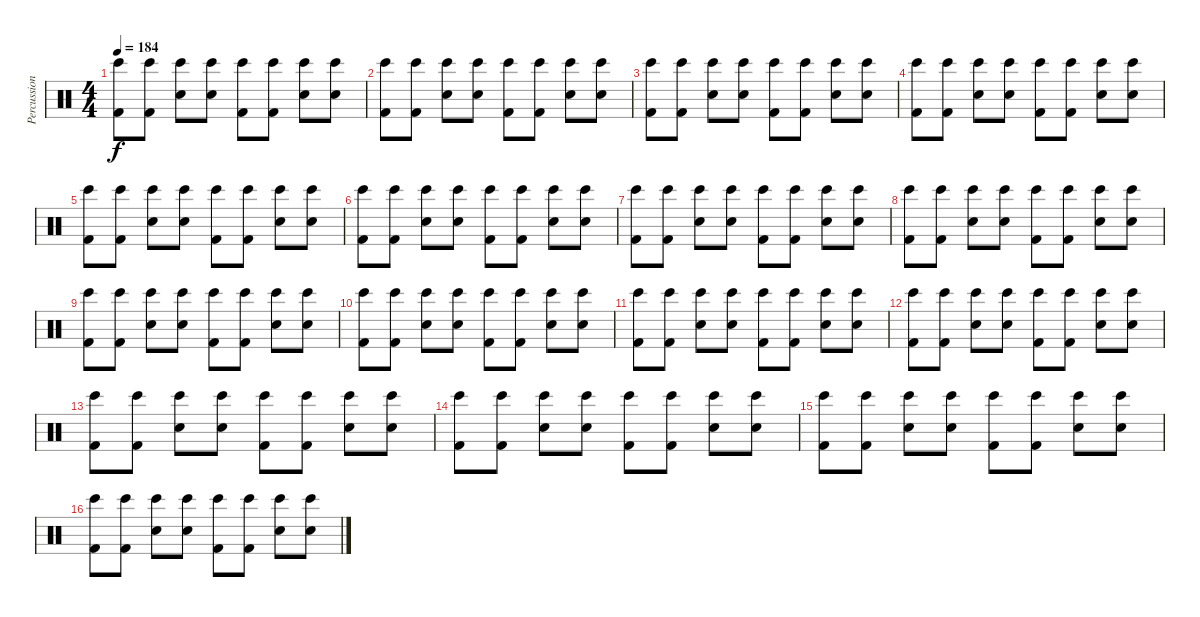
\track ("Percussion" "Percussion") {instrument percussion}
\staff {score}
\articulation defaults
\ts (4 4)
\tempo 184
\clef neutral
\ks c
("Bongo High (hit)" "Kick (hit) 2").8{dy f} ("Bongo High (hit)" "Kick (hit) 2").8 ("Bongo High (hit)" "Snare (hit) 2").8 ("Bongo High (hit)" "Snare (hit) 2").8 ("Bongo High (hit)" "Kick (hit) 2").8 ("Bongo High (hit)" "Kick (hit) 2").8 ("Bongo High (hit)" "Snare (hit) 2").8 ("Bongo High (hit)" "Snare (hit) 2").8 |
("Bongo High (hit)" "Kick (hit) 2").8 ("Bongo High (hit)" "Kick (hit) 2").8 ("Bongo High (hit)" "Snare (hit) 2").8 ("Bongo High (hit)" "Snare (hit) 2").8 ("Bongo High (hit)" "Kick (hit) 2").8 ("Bongo High (hit)" "Kick (hit) 2").8 ("Bongo High (hit)" "Snare (hit) 2").8 ("Bongo High (hit)" "Snare (hit) 2").8 |
("Bongo High (hit)" "Kick (hit) 2").8 ("Bongo High (hit)" "Kick (hit) 2").8 ("Bongo High (hit)" "Snare (hit) 2").8 ("Bongo High (hit)" "Snare (hit) 2").8 ("Bongo High (hit)" "Kick (hit) 2").8 ("Bongo High (hit)" "Kick (hit) 2").8 ("Bongo High (hit)" "Snare (hit) 2").8 ("Bongo High (hit)" "Snare (hit) 2").8 |
("Bongo High (hit)" "Kick (hit) 2").8 ("Bongo High (hit)" "Kick (hit) 2").8 ("Bongo High (hit)" "Snare (hit) 2").8 ("Bongo High (hit)" "Snare (hit) 2").8 ("Bongo High (hit)" "Kick (hit) 2").8 ("Bongo High (hit)" "Kick (hit) 2").8 ("Bongo High (hit)" "Snare (hit) 2").8 ("Bongo High (hit)" "Snare (hit) 2").8 |
("Bongo High (hit)" "Kick (hit) 2").8 ("Bongo High (hit)" "Kick (hit) 2").8 ("Bongo High (hit)" "Snare (hit) 2").8 ("Bongo High (hit)" "Snare (hit) 2").8 ("Bongo High (hit)" "Kick (hit) 2").8 ("Bongo High (hit)" "Kick (hit) 2").8 ("Bongo High (hit)" "Snare (hit) 2").8 ("Bongo High (hit)" "Snare (hit) 2").8 |
("Bongo High (hit)" "Kick (hit) 2").8{volume 9} ("Bongo High (hit)" "Kick (hit) 2").8 ("Bongo High (hit)" "Snare (hit) 2").8 ("Bongo High (hit)" "Snare (hit) 2").8 ("Bongo High (hit)" "Kick (hit) 2").8 ("Bongo High (hit)" "Kick (hit) 2").8 ("Bongo High (hit)" "Snare (hit) 2").8 ("Bongo High (hit)" "Snare (hit) 2").8 |
("Bongo High (hit)" "Kick (hit) 2").8 ("Bongo High (hit)" "Kick (hit) 2").8 ("Bongo High (hit)" "Snare (hit) 2").8 ("Bongo High (hit)" "Snare (hit) 2").8 ("Bongo High (hit)" "Kick (hit) 2").8 ("Bongo High (hit)" "Kick (hit) 2").8 ("Bongo High (hit)" "Snare (hit) 2").8 ("Bongo High (hit)" "Snare (hit) 2").8 |
("Bongo High (hit)" "Kick (hit) 2").8{volume 8} ("Bongo High (hit)" "Kick (hit) 2").8 ("Bongo High (hit)" "Snare (hit) 2").8 ("Bongo High (hit)" "Snare (hit) 2").8 ("Bongo High (hit)" "Kick (hit) 2").8 ("Bongo High (hit)" "Kick (hit) 2").8 ("Bongo High (hit)" "Snare (hit) 2").8 ("Bongo High (hit)" "Snare (hit) 2").8 |
("Bongo High (hit)" "Kick (hit) 2").8 ("Bongo High (hit)" "Kick (hit) 2").8 ("Bongo High (hit)" "Snare (hit) 2").8 ("Bongo High (hit)" "Snare (hit) 2").8 ("Bongo High (hit)" "Kick (hit) 2").8 ("Bongo High (hit)" "Kick (hit) 2").8 ("Bongo High (hit)" "Snare (hit) 2").8 ("Bongo High (hit)" "Snare (hit) 2").8 |
("Bongo High (hit)" "Kick (hit) 2").8{volume 7} ("Bongo High (hit)" "Kick (hit) 2").8 ("Bongo High (hit)" "Snare (hit) 2").8 ("Bongo High (hit)" "Snare (hit) 2").8 ("Bongo High (hit)" "Kick (hit) 2").8 ("Bongo High (hit)" "Kick (hit) 2").8 ("Bongo High (hit)" "Snare (hit) 2").8 ("Bongo High (hit)" "Snare (hit) 2").8 |
("Bongo High (hit)" "Kick (hit) 2").8 ("Bongo High (hit)" "Kick (hit) 2").8 ("Bongo High (hit)" "Snare (hit) 2").8 ("Bongo High (hit)" "Snare (hit) 2").8 ("Bongo High (hit)" "Kick (hit) 2").8 ("Bongo High (hit)" "Kick (hit) 2").8 ("Bongo High (hit)" "Snare (hit) 2").8 ("Bongo High (hit)" "Snare (hit) 2").8 |
("Bongo High (hit)" "Kick (hit) 2").8{volume 6} ("Bongo High (hit)" "Kick (hit) 2").8 ("Bongo High (hit)" "Snare (hit) 2").8 ("Bongo High (hit)" "Snare (hit) 2").8 ("Bongo High (hit)" "Kick (hit) 2").8 ("Bongo High (hit)" "Kick (hit) 2").8 ("Bongo High (hit)" "Snare (hit) 2").8 ("Bongo High (hit)" "Snare (hit) 2").8 |
("Bongo High (hit)" "Kick (hit) 2").8 ("Bongo High (hit)" "Kick (hit) 2").8 ("Bongo High (hit)" "Snare (hit) 2").8 ("Bongo High (hit)" "Snare (hit) 2").8 ("Bongo High (hit)" "Kick (hit) 2").8 ("Bongo High (hit)" "Kick (hit) 2").8 ("Bongo High (hit)" "Snare (hit) 2").8 ("Bongo High (hit)" "Snare (hit) 2").8 |
("Bongo High (hit)" "Kick (hit) 2").8{volume 5} ("Bongo High (hit)" "Kick (hit) 2").8 ("Bongo High (hit)" "Snare (hit) 2").8 ("Bongo High (hit)" "Snare (hit) 2").8 ("Bongo High (hit)" "Kick (hit) 2").8 ("Bongo High (hit)" "Kick (hit) 2").8 ("Bongo High (hit)" "Snare (hit) 2").8 ("Bongo High (hit)" "Snare (hit) 2").8 |
("Bongo High (hit)" "Kick (hit) 2").8 ("Bongo High (hit)" "Kick (hit) 2").8 ("Bongo High (hit)" "Snare (hit) 2").8 ("Bongo High (hit)" "Snare (hit) 2").8 ("Bongo High (hit)" "Kick (hit) 2").8 ("Bongo High (hit)" "Kick (hit) 2").8 ("Bongo High (hit)" "Snare (hit) 2").8 ("Bongo High (hit)" "Snare (hit) 2").8 |
("Bongo High (hit)" "Kick (hit) 2").8{volume 4} ("Bongo High (hit)" "Kick (hit) 2").8 ("Bongo High (hit)" "Snare (hit) 2").8 ("Bongo High (hit)" "Snare (hit) 2").8 ("Bongo High (hit)" "Kick (hit) 2").8 ("Bongo High (hit)" "Kick (hit) 2").8 ("Bongo High (hit)" "Snare (hit) 2").8 ("Bongo High (hit)" "Snare (hit) 2").8
